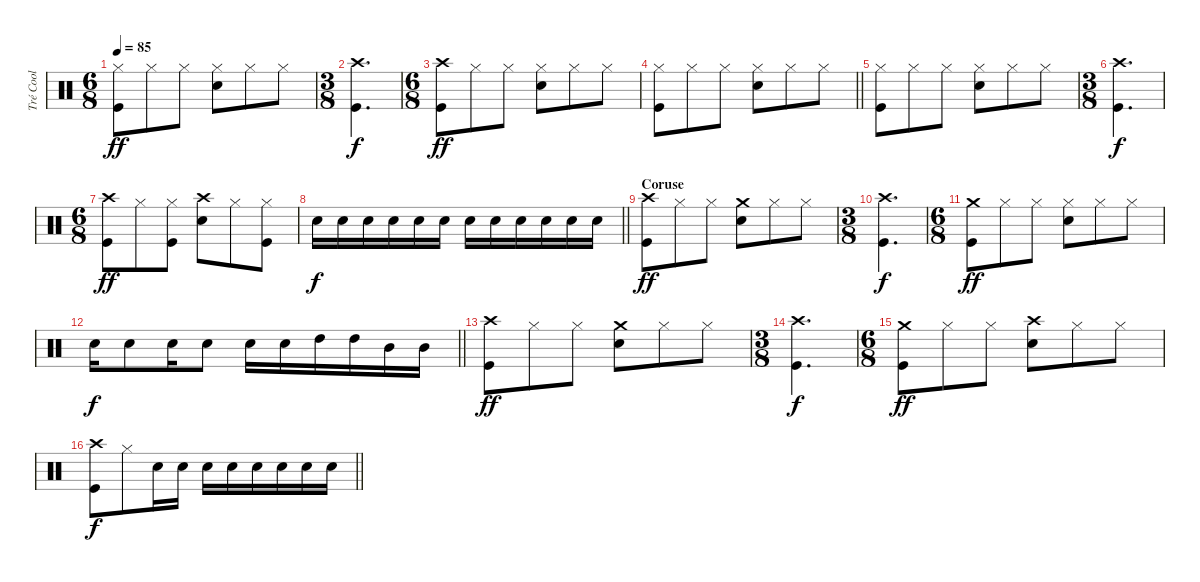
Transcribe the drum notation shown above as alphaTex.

\track ("Tré Cool" "Tré Cool") {instrument percussion}
\staff {score}
\articulation defaults
\ts (6 8)
\tempo 85
\clef neutral
\ks c
("Hi-Hat (closed)" "Kick (hit)").8{dy ff} "Hi-Hat (closed)".8 "Hi-Hat (closed)".8 ("Hi-Hat (closed)" "Snare (hit) 2").8 "Hi-Hat (closed)".8 "Hi-Hat (closed)".8 |
\ts (3 8)
("Crash high (hit)" "Kick (hit)").4{d dy f} |
\ts (6 8)
("Crash high (hit)" "Kick (hit)").8{dy ff} "Hi-Hat (closed)".8 "Hi-Hat (closed)".8 ("Hi-Hat (closed)" "Snare (hit) 2").8 "Hi-Hat (closed)".8 "Hi-Hat (closed)".8 |
\barLineRight lightlight
("Hi-Hat (closed)" "Kick (hit)").8 "Hi-Hat (closed)".8 "Hi-Hat (closed)".8 ("Hi-Hat (closed)" "Snare (hit) 2").8 "Hi-Hat (closed)".8 "Hi-Hat (closed)".8 |
("Hi-Hat (closed)" "Kick (hit)").8 "Hi-Hat (closed)".8 "Hi-Hat (closed)".8 ("Hi-Hat (closed)" "Snare (hit) 2").8 "Hi-Hat (closed)".8 "Hi-Hat (closed)".8 |
\ts (3 8)
("Crash high (hit)" "Kick (hit)").4{d dy f} |
\ts (6 8)
("Crash high (hit)" "Kick (hit)").8{dy ff} "Hi-Hat (closed)".8 ("Hi-Hat (closed)" "Kick (hit)").8 ("Crash high (hit)" "Snare (hit) 2").8 "Hi-Hat (closed)".8 ("Hi-Hat (closed)" "Kick (hit)").8 |
\barLineRight lightlight "Snare (hit) 2".16{dy f} "Snare (hit) 2".16 "Snare (hit) 2".16 "Snare (hit) 2".16 "Snare (hit) 2".16 "Snare (hit) 2".16 "Snare (hit) 2".16 "Snare (hit) 2".16 "Snare (hit) 2".16 "Snare (hit) 2".16 "Snare (hit) 2".16 "Snare (hit) 2".16
|
\section ("" "Coruse")
("Crash high (hit)" "Kick (hit)").8{dy ff} "Hi-Hat (closed)".8 "Hi-Hat (closed)".8 ("Crash medium (hit)" "Snare (hit) 2").8 "Hi-Hat (closed)".8 "Hi-Hat (closed)".8 |
\ts (3 8)
("Crash high (hit)" "Kick (hit)").4{d dy f} |
\ts (6 8)
("Crash medium (hit)" "Kick (hit)").8{dy ff} "Hi-Hat (closed)".8 "Hi-Hat (closed)".8 ("Hi-Hat (closed)" "Snare (hit) 2").8 "Hi-Hat (closed)".8 "Hi-Hat (closed)".8 |
\barLineRight lightlight "Snare (hit) 2".16{dy f} "Snare (hit) 2".8 "Snare (hit) 2".16 "Snare (hit) 2".8 "Snare (hit) 2".16 "Snare (hit) 2".16 "High Tom (hit)".16 "High Tom (hit)".16 "Mid Tom (hit)".16 "Mid Tom (hit)".16
|
("Crash high (hit)" "Kick (hit)").8{dy ff} "Hi-Hat (closed)".8 "Hi-Hat (closed)".8 ("Crash medium (hit)" "Snare (hit) 2").8 "Hi-Hat (closed)".8 "Hi-Hat (closed)".8 |
\ts (3 8)
("Crash high (hit)" "Kick (hit)").4{d dy f} |
\ts (6 8)
("Crash medium (hit)" "Kick (hit)").8{dy ff} "Hi-Hat (closed)".8 "Hi-Hat (closed)".8 ("Crash high (hit)" "Snare (hit) 2").8 "Hi-Hat (closed)".8 "Hi-Hat (closed)".8 |
\barLineRight lightlight
("Crash high (hit)" "Kick (hit)").8{dy f} "Hi-Hat (closed)".8 "Snare (hit) 2".16 "Snare (hit) 2".16 "Snare (hit) 2".16 "Snare (hit) 2".16 "Snare (hit) 2".16 "Snare (hit) 2".16 "Snare (hit) 2".16 "Snare (hit) 2".16
